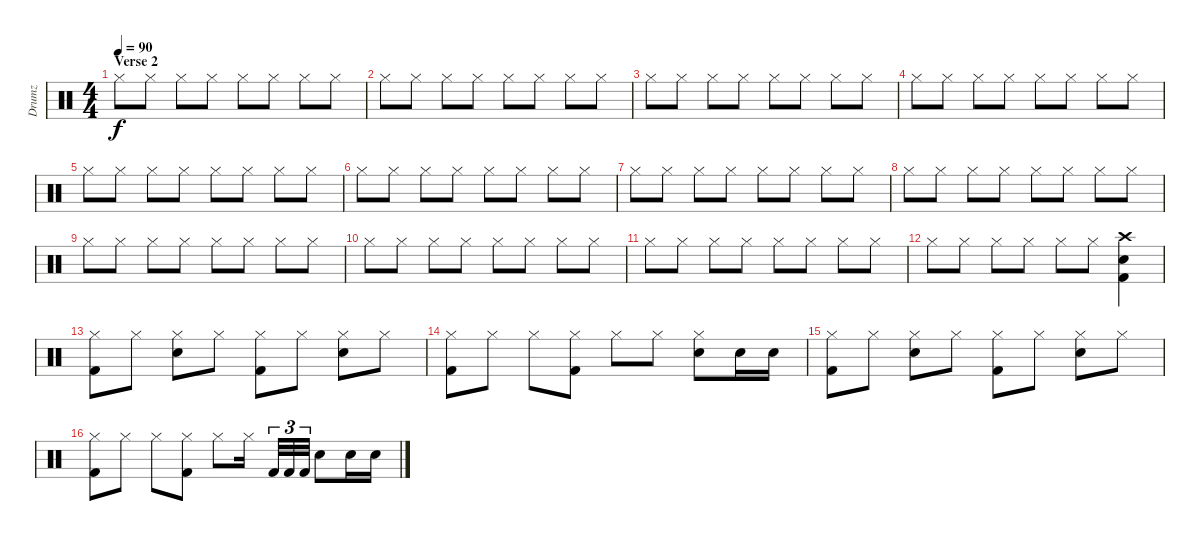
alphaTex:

\track ("Drumz" "Drumz") {instrument percussion}
\staff {score}
\articulation defaults
\ts (4 4)
\section ("" "Verse 2")
\tempo 90
\clef neutral
\ks c "Hi-Hat (closed)".8{dy f} "Hi-Hat (closed)".8 "Hi-Hat (closed)".8 "Hi-Hat (closed)".8 "Hi-Hat (closed)".8 "Hi-Hat (closed)".8 "Hi-Hat (closed)".8 "Hi-Hat (closed)".8
|
"Hi-Hat (closed)".8 "Hi-Hat (closed)".8 "Hi-Hat (closed)".8 "Hi-Hat (closed)".8 "Hi-Hat (closed)".8 "Hi-Hat (closed)".8 "Hi-Hat (closed)".8 "Hi-Hat (closed)".8 |
"Hi-Hat (closed)".8 "Hi-Hat (closed)".8 "Hi-Hat (closed)".8 "Hi-Hat (closed)".8 "Hi-Hat (closed)".8 "Hi-Hat (closed)".8 "Hi-Hat (closed)".8 "Hi-Hat (closed)".8 |
"Hi-Hat (closed)".8 "Hi-Hat (closed)".8 "Hi-Hat (closed)".8 "Hi-Hat (closed)".8 "Hi-Hat (closed)".8 "Hi-Hat (closed)".8 "Hi-Hat (closed)".8 "Hi-Hat (closed)".8 |
"Hi-Hat (closed)".8 "Hi-Hat (closed)".8 "Hi-Hat (closed)".8 "Hi-Hat (closed)".8 "Hi-Hat (closed)".8 "Hi-Hat (closed)".8 "Hi-Hat (closed)".8 "Hi-Hat (closed)".8 |
"Hi-Hat (closed)".8 "Hi-Hat (closed)".8 "Hi-Hat (closed)".8 "Hi-Hat (closed)".8 "Hi-Hat (closed)".8 "Hi-Hat (closed)".8 "Hi-Hat (closed)".8 "Hi-Hat (closed)".8 |
"Hi-Hat (closed)".8 "Hi-Hat (closed)".8 "Hi-Hat (closed)".8 "Hi-Hat (closed)".8 "Hi-Hat (closed)".8 "Hi-Hat (closed)".8 "Hi-Hat (closed)".8 "Hi-Hat (closed)".8 |
"Hi-Hat (closed)".8 "Hi-Hat (closed)".8 "Hi-Hat (closed)".8 "Hi-Hat (closed)".8 "Hi-Hat (closed)".8 "Hi-Hat (closed)".8 "Hi-Hat (closed)".8 "Hi-Hat (closed)".8 |
"Hi-Hat (closed)".8 "Hi-Hat (closed)".8 "Hi-Hat (closed)".8 "Hi-Hat (closed)".8 "Hi-Hat (closed)".8 "Hi-Hat (closed)".8 "Hi-Hat (closed)".8 "Hi-Hat (closed)".8 |
"Hi-Hat (closed)".8 "Hi-Hat (closed)".8 "Hi-Hat (closed)".8 "Hi-Hat (closed)".8 "Hi-Hat (closed)".8 "Hi-Hat (closed)".8 "Hi-Hat (closed)".8 "Hi-Hat (closed)".8 |
"Hi-Hat (closed)".8 "Hi-Hat (closed)".8 "Hi-Hat (closed)".8 "Hi-Hat (closed)".8 "Hi-Hat (closed)".8 "Hi-Hat (closed)".8 "Hi-Hat (closed)".8 "Hi-Hat (closed)".8 |
"Hi-Hat (closed)".8 "Hi-Hat (closed)".8 "Hi-Hat (closed)".8 "Hi-Hat (closed)".8 "Hi-Hat (closed)".8 "Hi-Hat (closed)".8 ("Crash high (hit)" "Kick (hit) 2" "Snare (hit) 2").4 |
("Hi-Hat (closed)" "Kick (hit) 2").8 "Hi-Hat (closed)".8 ("Hi-Hat (closed)" "Snare (hit) 2").8 "Hi-Hat (closed)".8 ("Hi-Hat (closed)" "Kick (hit) 2").8 "Hi-Hat (closed)".8 ("Hi-Hat (closed)" "Snare (hit) 2").8 "Hi-Hat (closed)".8 |
("Hi-Hat (closed)" "Kick (hit) 2").8 "Hi-Hat (closed)".8 "Hi-Hat (closed)".8 ("Hi-Hat (closed)" "Kick (hit) 2").8 "Hi-Hat (closed)".8 "Hi-Hat (closed)".8 ("Hi-Hat (closed)" "Snare (hit) 2").8 "Snare (hit) 2".16 "Snare (hit) 2".16 |
("Hi-Hat (closed)" "Kick (hit) 2").8 "Hi-Hat (closed)".8 ("Hi-Hat (closed)" "Snare (hit) 2").8 "Hi-Hat (closed)".8 ("Hi-Hat (closed)" "Kick (hit) 2").8 "Hi-Hat (closed)".8 ("Hi-Hat (closed)" "Snare (hit) 2").8 "Hi-Hat (closed)".8 |
("Hi-Hat (closed)" "Kick (hit) 2").8 "Hi-Hat (closed)".8 "Hi-Hat (closed)".8 ("Hi-Hat (closed)" "Kick (hit) 2").8 "Hi-Hat (closed)".8 "Hi-Hat (closed)".16{beam splitsecondary} "Kick (hit) 2".32{tu (3 2)} "Kick (hit) 2".32{tu (3 2)} "Kick (hit) 2".32{tu (3 2)} "Snare (hit) 2".8 "Snare (hit) 2".16 "Snare (hit) 2".16
